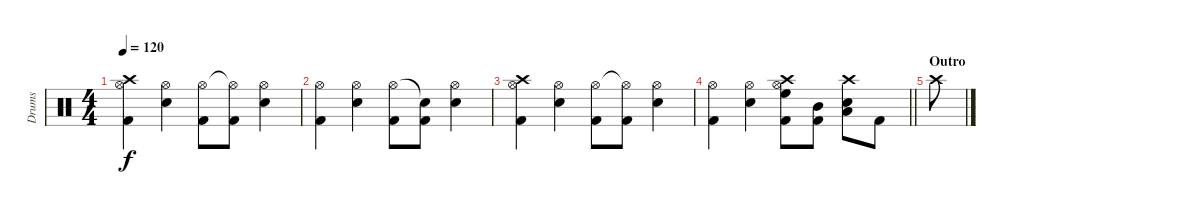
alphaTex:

\track ("Drums" "Drums") {instrument percussion}
\staff {score}
\articulation defaults
\ts (4 4)
\tempo 120
\clef neutral
\ks c
("Crash high (hit)" "Hi-Hat (open)" "Kick (hit) 2").4{dy f} ("Hi-Hat (open)" "Snare (hit) 2").4 ("Hi-Hat (open)" "Kick (hit) 2").8 ("Hi-Hat (open)"{t} "Kick (hit) 2").8 ("Hi-Hat (open)" "Snare (hit) 2").4 |
("Hi-Hat (open)" "Kick (hit) 2").4 ("Hi-Hat (open)" "Snare (hit) 2").4 ("Hi-Hat (open)" "Kick (hit) 2").8 ("Snare (hit)"{t} "Kick (hit) 2").8 ("Hi-Hat (open)" "Snare (hit) 2").4 |
("Crash high (hit)" "Hi-Hat (open)" "Kick (hit) 2").4 ("Hi-Hat (open)" "Snare (hit) 2").4 ("Hi-Hat (open)" "Kick (hit) 2").8 ("Hi-Hat (open)"{t} "Kick (hit) 2").8 ("Hi-Hat (open)" "Snare (hit) 2").4 |
\barLineRight lightlight
("Hi-Hat (open)" "Kick (hit) 2").4 ("Hi-Hat (open)" "Snare (hit) 2").4 ("Crash high (hit)" "Hi-Hat (open)" "High Floor Tom (hit)" "Kick (hit) 2").8 ("Mid Tom (hit)" "Kick (hit) 2").8 ("Crash high (hit)" "Low Floor Tom (hit)" "Snare (hit) 2").8 "Kick (hit) 2".8 |
\section ("" "Outro")
"Crash high (hit)".8
